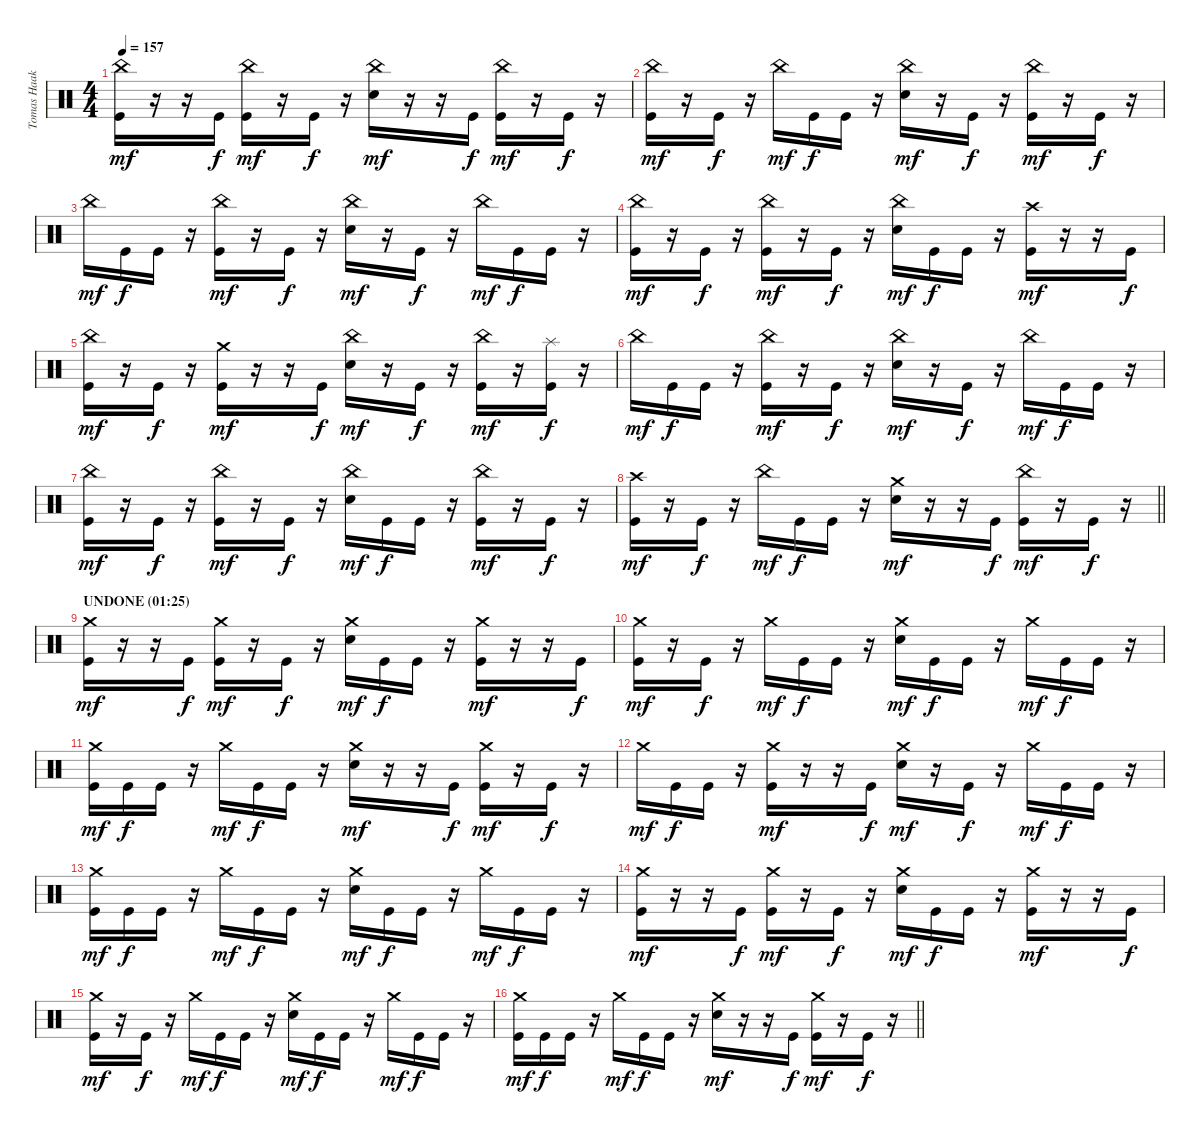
\track ("Tomas Haake (Drums)" "Tomas Haak") {instrument percussion}
\staff {score}
\articulation defaults
\ts (4 4)
\tempo 157
\clef neutral
\ks c
("China (hit)" "Kick (hit)").16{dy mf} r.16 r.16 "Kick (hit)".16{dy f} ("China (hit)" "Kick (hit)").16{dy mf} r.16 "Kick (hit)".16{dy f} r.16 ("China (hit)" "Electric Snare (hit)").16{dy mf} r.16 r.16 "Kick (hit)".16{dy f} ("China (hit)" "Kick (hit)").16{dy mf} r.16 "Kick (hit)".16{dy f} r.16 |
("China (hit)" "Kick (hit)").16{dy mf} r.16 "Kick (hit)".16{dy f} r.16 "China (hit)".16{dy mf} "Kick (hit)".16{dy f} "Kick (hit)".16 r.16 ("China (hit)" "Electric Snare (hit)").16{dy mf} r.16 "Kick (hit)".16{dy f} r.16 ("China (hit)" "Kick (hit)").16{dy mf} r.16 "Kick (hit)".16{dy f} r.16 |
"China (hit)".16{dy mf} "Kick (hit)".16{dy f} "Kick (hit)".16 r.16 ("China (hit)" "Kick (hit)").16{dy mf} r.16 "Kick (hit)".16{dy f} r.16 ("China (hit)" "Electric Snare (hit)").16{dy mf} r.16 "Kick (hit)".16{dy f} r.16 "China (hit)".16{dy mf} "Kick (hit)".16{dy f} "Kick (hit)".16 r.16 |
("China (hit)" "Kick (hit)").16{dy mf} r.16 "Kick (hit)".16{dy f} r.16 ("China (hit)" "Kick (hit)").16{dy mf} r.16 "Kick (hit)".16{dy f} r.16 ("China (hit)" "Electric Snare (hit)").16{dy mf} "Kick (hit)".16{dy f} "Kick (hit)".16 r.16 ("Crash high (hit)" "Kick (hit)").16{dy mf} r.16 r.16 "Kick (hit)".16{dy f} |
("China (hit)" "Kick (hit)").16{dy mf} r.16 "Kick (hit)".16{dy f} r.16 ("Crash medium (hit)" "Kick (hit)").16{dy mf} r.16 r.16 "Kick (hit)".16{dy f} ("China (hit)" "Electric Snare (hit)").16{dy mf} r.16 "Kick (hit)".16{dy f} r.16 ("China (hit)" "Kick (hit)").16{dy mf} r.16 ("Splash (hit)" "Kick (hit)").16{dy f} r.16 |
"China (hit)".16{dy mf} "Kick (hit)".16{dy f} "Kick (hit)".16 r.16 ("China (hit)" "Kick (hit)").16{dy mf} r.16 "Kick (hit)".16{dy f} r.16 ("China (hit)" "Electric Snare (hit)").16{dy mf} r.16 "Kick (hit)".16{dy f} r.16 "China (hit)".16{dy mf} "Kick (hit)".16{dy f} "Kick (hit)".16 r.16 |
("China (hit)" "Kick (hit)").16{dy mf} r.16 "Kick (hit)".16{dy f} r.16 ("China (hit)" "Kick (hit)").16{dy mf} r.16 "Kick (hit)".16{dy f} r.16 ("China (hit)" "Electric Snare (hit)").16{dy mf} "Kick (hit)".16{dy f} "Kick (hit)".16 r.16 ("China (hit)" "Kick (hit)").16{dy mf} r.16 "Kick (hit)".16{dy f} r.16 |
\barLineRight lightlight
("Crash high (hit)" "Kick (hit)").16{dy mf} r.16 "Kick (hit)".16{dy f} r.16 "China (hit)".16{dy mf} "Kick (hit)".16{dy f} "Kick (hit)".16 r.16 ("Crash medium (hit)" "Electric Snare (hit)").16{dy mf} r.16 r.16 "Kick (hit)".16{dy f} ("China (hit)" "Kick (hit)").16{dy mf} r.16 "Kick (hit)".16{dy f} r.16 |
\section ("" "UNDONE (01:25)")
("Crash medium (hit)" "Kick (hit)").16{dy mf} r.16 r.16 "Kick (hit)".16{dy f} ("Crash medium (hit)" "Kick (hit)").16{dy mf} r.16 "Kick (hit)".16{dy f} r.16 ("Crash medium (hit)" "Electric Snare (hit)").16{dy mf} "Kick (hit)".16{dy f} "Kick (hit)".16 r.16 ("Crash medium (hit)" "Kick (hit)").16{dy mf} r.16 r.16 "Kick (hit)".16{dy f} |
("Crash medium (hit)" "Kick (hit)").16{dy mf} r.16 "Kick (hit)".16{dy f} r.16 "Crash medium (hit)".16{dy mf} "Kick (hit)".16{dy f} "Kick (hit)".16 r.16 ("Crash medium (hit)" "Electric Snare (hit)").16{dy mf} "Kick (hit)".16{dy f} "Kick (hit)".16 r.16 "Crash medium (hit)".16{dy mf} "Kick (hit)".16{dy f} "Kick (hit)".16 r.16 |
("Crash medium (hit)" "Kick (hit)").16{dy mf} "Kick (hit)".16{dy f} "Kick (hit)".16 r.16 "Crash medium (hit)".16{dy mf} "Kick (hit)".16{dy f} "Kick (hit)".16 r.16 ("Crash medium (hit)" "Electric Snare (hit)").16{dy mf} r.16 r.16 "Kick (hit)".16{dy f} ("Crash medium (hit)" "Kick (hit)").16{dy mf} r.16 "Kick (hit)".16{dy f} r.16 |
"Crash medium (hit)".16{dy mf} "Kick (hit)".16{dy f} "Kick (hit)".16 r.16 ("Crash medium (hit)" "Kick (hit)").16{dy mf} r.16 r.16 "Kick (hit)".16{dy f} ("Crash medium (hit)" "Electric Snare (hit)").16{dy mf} r.16 "Kick (hit)".16{dy f} r.16 "Crash medium (hit)".16{dy mf} "Kick (hit)".16{dy f} "Kick (hit)".16 r.16 |
("Crash medium (hit)" "Kick (hit)").16{dy mf} "Kick (hit)".16{dy f} "Kick (hit)".16 r.16 "Crash medium (hit)".16{dy mf} "Kick (hit)".16{dy f} "Kick (hit)".16 r.16 ("Crash medium (hit)" "Electric Snare (hit)").16{dy mf} "Kick (hit)".16{dy f} "Kick (hit)".16 r.16 "Crash medium (hit)".16{dy mf} "Kick (hit)".16{dy f} "Kick (hit)".16 r.16 |
("Crash medium (hit)" "Kick (hit)").16{dy mf} r.16 r.16 "Kick (hit)".16{dy f} ("Crash medium (hit)" "Kick (hit)").16{dy mf} r.16 "Kick (hit)".16{dy f} r.16 ("Crash medium (hit)" "Electric Snare (hit)").16{dy mf} "Kick (hit)".16{dy f} "Kick (hit)".16 r.16 ("Crash medium (hit)" "Kick (hit)").16{dy mf} r.16 r.16 "Kick (hit)".16{dy f} |
("Crash medium (hit)" "Kick (hit)").16{dy mf} r.16 "Kick (hit)".16{dy f} r.16 "Crash medium (hit)".16{dy mf} "Kick (hit)".16{dy f} "Kick (hit)".16 r.16 ("Crash medium (hit)" "Electric Snare (hit)").16{dy mf} "Kick (hit)".16{dy f} "Kick (hit)".16 r.16 "Crash medium (hit)".16{dy mf} "Kick (hit)".16{dy f} "Kick (hit)".16 r.16 |
\barLineRight lightlight
("Crash medium (hit)" "Kick (hit)").16{dy mf} "Kick (hit)".16{dy f} "Kick (hit)".16 r.16 "Crash medium (hit)".16{dy mf} "Kick (hit)".16{dy f} "Kick (hit)".16 r.16 ("Crash medium (hit)" "Electric Snare (hit)").16{dy mf} r.16 r.16 "Kick (hit)".16{dy f} ("Crash medium (hit)" "Kick (hit)").16{dy mf} r.16 "Kick (hit)".16{dy f} r.16
